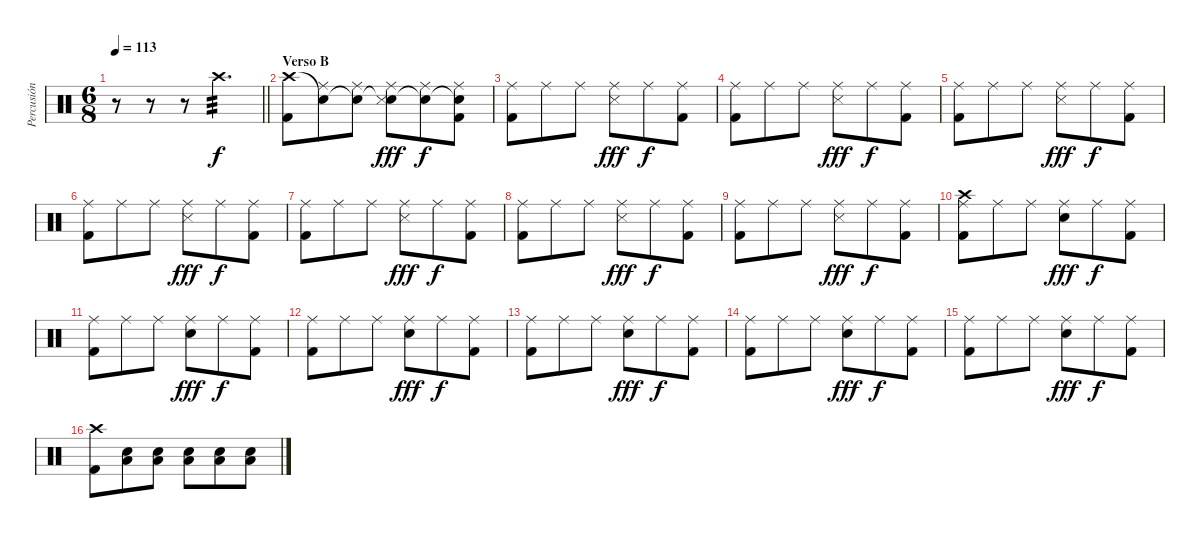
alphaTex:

\track ("Percusión" "Percusión") {instrument percussion}
\staff {score}
\articulation defaults
\ts (6 8)
\tempo 113
\clef neutral
\barLineRight lightlight
\ks c
r.8{dy f} r.8 r.8{volume 0} "Crash high (hit)".4{d tp 3 volume 13} |
\section ("" "Verso B")
("Crash high (hit)" "Kick (hit) 2").8 ("Snare (hit)"{t} "Ride (middle)").8 ("Snare (hit)"{t} "Ride (middle)").8 ("Snare (hit)"{t} "Ride (middle)" "Snare (side stick) 3").8{dy fff} ("Snare (hit)"{t} "Ride (middle)").8{dy f} ("Snare (hit)"{t} "Ride (middle)" "Kick (hit) 2").8 |
("Ride (middle)" "Kick (hit) 2").8 "Ride (middle)".8 "Ride (middle)".8 ("Ride (middle)" "Snare (side stick) 3").8{dy fff} "Ride (middle)".8{dy f} ("Ride (middle)" "Kick (hit) 2").8 |
("Ride (middle)" "Kick (hit) 2").8 "Ride (middle)".8 "Ride (middle)".8 ("Ride (middle)" "Snare (side stick) 3").8{dy fff} "Ride (middle)".8{dy f} ("Ride (middle)" "Kick (hit) 2").8 |
("Ride (middle)" "Kick (hit) 2").8 "Ride (middle)".8 "Ride (middle)".8 ("Ride (middle)" "Snare (side stick) 3").8{dy fff} "Ride (middle)".8{dy f} ("Ride (middle)" "Kick (hit) 2").8 |
("Ride (middle)" "Kick (hit) 2").8 "Ride (middle)".8 "Ride (middle)".8 ("Ride (middle)" "Snare (side stick) 3").8{dy fff} "Ride (middle)".8{dy f} ("Ride (middle)" "Kick (hit) 2").8 |
("Ride (middle)" "Kick (hit) 2").8 "Ride (middle)".8 "Ride (middle)".8 ("Ride (middle)" "Snare (side stick) 3").8{dy fff} "Ride (middle)".8{dy f} ("Ride (middle)" "Kick (hit) 2").8 |
("Ride (middle)" "Kick (hit) 2").8 "Ride (middle)".8 "Ride (middle)".8 ("Ride (middle)" "Snare (side stick) 3").8{dy fff} "Ride (middle)".8{dy f} ("Ride (middle)" "Kick (hit) 2").8 |
("Ride (middle)" "Kick (hit) 2").8 "Ride (middle)".8 "Ride (middle)".8 ("Ride (middle)" "Snare (side stick) 3").8{dy fff} "Ride (middle)".8{dy f} ("Ride (middle)" "Kick (hit) 2").8 |
("Crash high (hit)" "Ride (middle)" "Kick (hit) 2").8 "Ride (middle)".8 "Ride (middle)".8 ("Ride (middle)" "Electric Snare (hit)").8{dy fff} "Ride (middle)".8{dy f} ("Ride (middle)" "Kick (hit) 2").8 |
("Ride (middle)" "Kick (hit) 2").8 "Ride (middle)".8 "Ride (middle)".8 ("Ride (middle)" "Electric Snare (hit)").8{dy fff} "Ride (middle)".8{dy f} ("Ride (middle)" "Kick (hit) 2").8 |
("Ride (middle)" "Kick (hit) 2").8 "Ride (middle)".8 "Ride (middle)".8 ("Ride (middle)" "Electric Snare (hit)").8{dy fff} "Ride (middle)".8{dy f} ("Ride (middle)" "Kick (hit) 2").8 |
("Ride (middle)" "Kick (hit) 2").8 "Ride (middle)".8 "Ride (middle)".8 ("Ride (middle)" "Electric Snare (hit)").8{dy fff} "Ride (middle)".8{dy f} ("Ride (middle)" "Kick (hit) 2").8 |
("Ride (middle)" "Kick (hit) 2").8 "Ride (middle)".8 "Ride (middle)".8 ("Ride (middle)" "Electric Snare (hit)").8{dy fff} "Ride (middle)".8{dy f} ("Ride (middle)" "Kick (hit) 2").8 |
("Ride (middle)" "Kick (hit) 2").8 "Ride (middle)".8 "Ride (middle)".8 ("Ride (middle)" "Electric Snare (hit)").8{dy fff} "Ride (middle)".8{dy f} ("Ride (middle)" "Kick (hit) 2").8 |
("Crash high (hit)" "Kick (hit) 2").8 ("Electric Snare (hit)" "Low Floor Tom (hit)").8 ("Electric Snare (hit)" "Low Floor Tom (hit)").8 ("Electric Snare (hit)" "Low Floor Tom (hit)").8 ("Electric Snare (hit)" "Low Floor Tom (hit)").8 ("Electric Snare (hit)" "Low Floor Tom (hit)").8
